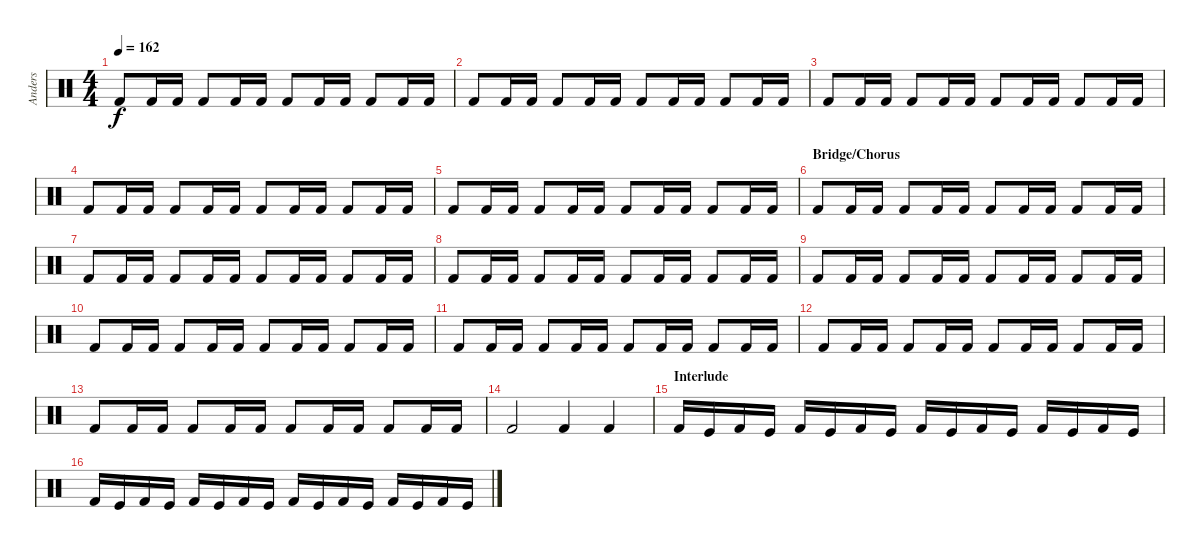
\track ("Anders" "Anders") {instrument percussion}
\staff {score}
\articulation defaults
\ts (4 4)
\tempo 162
\clef neutral
\ks c "Kick (hit) 2".8{dy f} "Kick (hit) 2".16 "Kick (hit) 2".16 "Kick (hit) 2".8 "Kick (hit) 2".16 "Kick (hit) 2".16 "Kick (hit) 2".8 "Kick (hit) 2".16 "Kick (hit) 2".16 "Kick (hit) 2".8 "Kick (hit) 2".16 "Kick (hit) 2".16
|
"Kick (hit) 2".8 "Kick (hit) 2".16 "Kick (hit) 2".16 "Kick (hit) 2".8 "Kick (hit) 2".16 "Kick (hit) 2".16 "Kick (hit) 2".8 "Kick (hit) 2".16 "Kick (hit) 2".16 "Kick (hit) 2".8 "Kick (hit) 2".16 "Kick (hit) 2".16 |
"Kick (hit) 2".8 "Kick (hit) 2".16 "Kick (hit) 2".16 "Kick (hit) 2".8 "Kick (hit) 2".16 "Kick (hit) 2".16 "Kick (hit) 2".8 "Kick (hit) 2".16 "Kick (hit) 2".16 "Kick (hit) 2".8 "Kick (hit) 2".16 "Kick (hit) 2".16 |
"Kick (hit) 2".8 "Kick (hit) 2".16 "Kick (hit) 2".16 "Kick (hit) 2".8 "Kick (hit) 2".16 "Kick (hit) 2".16 "Kick (hit) 2".8 "Kick (hit) 2".16 "Kick (hit) 2".16 "Kick (hit) 2".8 "Kick (hit) 2".16 "Kick (hit) 2".16 |
"Kick (hit) 2".8 "Kick (hit) 2".16 "Kick (hit) 2".16 "Kick (hit) 2".8 "Kick (hit) 2".16 "Kick (hit) 2".16 "Kick (hit) 2".8 "Kick (hit) 2".16 "Kick (hit) 2".16 "Kick (hit) 2".8 "Kick (hit) 2".16 "Kick (hit) 2".16 |
\section ("" "Bridge/Chorus")
"Kick (hit) 2".8 "Kick (hit) 2".16 "Kick (hit) 2".16 "Kick (hit) 2".8 "Kick (hit) 2".16 "Kick (hit) 2".16 "Kick (hit) 2".8 "Kick (hit) 2".16 "Kick (hit) 2".16 "Kick (hit) 2".8 "Kick (hit) 2".16 "Kick (hit) 2".16 |
"Kick (hit) 2".8 "Kick (hit) 2".16 "Kick (hit) 2".16 "Kick (hit) 2".8 "Kick (hit) 2".16 "Kick (hit) 2".16 "Kick (hit) 2".8 "Kick (hit) 2".16 "Kick (hit) 2".16 "Kick (hit) 2".8 "Kick (hit) 2".16 "Kick (hit) 2".16 |
"Kick (hit) 2".8 "Kick (hit) 2".16 "Kick (hit) 2".16 "Kick (hit) 2".8 "Kick (hit) 2".16 "Kick (hit) 2".16 "Kick (hit) 2".8 "Kick (hit) 2".16 "Kick (hit) 2".16 "Kick (hit) 2".8 "Kick (hit) 2".16 "Kick (hit) 2".16 |
"Kick (hit) 2".8 "Kick (hit) 2".16 "Kick (hit) 2".16 "Kick (hit) 2".8 "Kick (hit) 2".16 "Kick (hit) 2".16 "Kick (hit) 2".8 "Kick (hit) 2".16 "Kick (hit) 2".16 "Kick (hit) 2".8 "Kick (hit) 2".16 "Kick (hit) 2".16 |
"Kick (hit) 2".8 "Kick (hit) 2".16 "Kick (hit) 2".16 "Kick (hit) 2".8 "Kick (hit) 2".16 "Kick (hit) 2".16 "Kick (hit) 2".8 "Kick (hit) 2".16 "Kick (hit) 2".16 "Kick (hit) 2".8 "Kick (hit) 2".16 "Kick (hit) 2".16 |
"Kick (hit) 2".8 "Kick (hit) 2".16 "Kick (hit) 2".16 "Kick (hit) 2".8 "Kick (hit) 2".16 "Kick (hit) 2".16 "Kick (hit) 2".8 "Kick (hit) 2".16 "Kick (hit) 2".16 "Kick (hit) 2".8 "Kick (hit) 2".16 "Kick (hit) 2".16 |
"Kick (hit) 2".8 "Kick (hit) 2".16 "Kick (hit) 2".16 "Kick (hit) 2".8 "Kick (hit) 2".16 "Kick (hit) 2".16 "Kick (hit) 2".8 "Kick (hit) 2".16 "Kick (hit) 2".16 "Kick (hit) 2".8 "Kick (hit) 2".16 "Kick (hit) 2".16 |
"Kick (hit) 2".8 "Kick (hit) 2".16 "Kick (hit) 2".16 "Kick (hit) 2".8 "Kick (hit) 2".16 "Kick (hit) 2".16 "Kick (hit) 2".8 "Kick (hit) 2".16 "Kick (hit) 2".16 "Kick (hit) 2".8 "Kick (hit) 2".16 "Kick (hit) 2".16 |
"Kick (hit) 2".2 "Kick (hit) 2".4 "Kick (hit) 2".4 |
\section ("" "Interlude")
"Kick (hit) 2".16 "Kick (hit)".16 "Kick (hit) 2".16 "Kick (hit)".16 "Kick (hit) 2".16 "Kick (hit)".16 "Kick (hit) 2".16 "Kick (hit)".16 "Kick (hit) 2".16 "Kick (hit)".16 "Kick (hit) 2".16 "Kick (hit)".16 "Kick (hit) 2".16 "Kick (hit)".16 "Kick (hit) 2".16 "Kick (hit)".16 |
"Kick (hit) 2".16 "Kick (hit)".16 "Kick (hit) 2".16 "Kick (hit)".16 "Kick (hit) 2".16 "Kick (hit)".16 "Kick (hit) 2".16 "Kick (hit)".16 "Kick (hit) 2".16 "Kick (hit)".16 "Kick (hit) 2".16 "Kick (hit)".16 "Kick (hit) 2".16 "Kick (hit)".16 "Kick (hit) 2".16 "Kick (hit)".16
